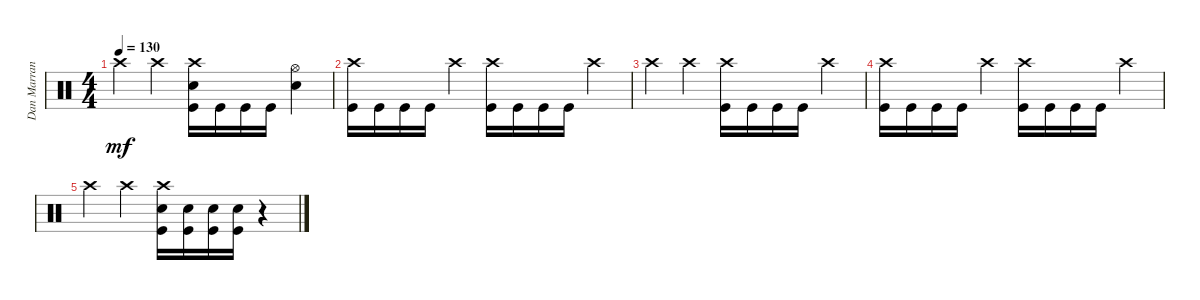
\track ("Dan Marranca" "Dan Marran") {instrument percussion}
\staff {score}
\articulation defaults
\ts (4 4)
\tempo 130
\clef neutral
\ks c "Crash high (hit)".4{dy mf} "Crash high (hit)".4
("Crash high (hit)" "Electric Snare (hit)" "Kick (hit)").16 "Kick (hit)".16 "Kick (hit)".16 "Kick (hit)".16 ("Hi-Hat (open)" "Electric Snare (hit)").4 |
("Crash high (hit)" "Kick (hit)").16 "Kick (hit)".16 "Kick (hit)".16 "Kick (hit)".16 "Crash high (hit)".4 ("Crash high (hit)" "Kick (hit)").16 "Kick (hit)".16 "Kick (hit)".16 "Kick (hit)".16 "Crash high (hit)".4 |
"Crash high (hit)".4 "Crash high (hit)".4 ("Crash high (hit)" "Kick (hit)").16 "Kick (hit)".16 "Kick (hit)".16 "Kick (hit)".16 "Crash high (hit)".4 |
("Crash high (hit)" "Kick (hit)").16 "Kick (hit)".16 "Kick (hit)".16 "Kick (hit)".16 "Crash high (hit)".4 ("Crash high (hit)" "Kick (hit)").16 "Kick (hit)".16 "Kick (hit)".16 "Kick (hit)".16 "Crash high (hit)".4 |
"Crash high (hit)".4 "Crash high (hit)".4 ("Crash high (hit)" "Electric Snare (hit)" "Kick (hit)").16 ("Electric Snare (hit)" "Kick (hit)").16 ("Electric Snare (hit)" "Kick (hit)").16 ("Electric Snare (hit)" "Kick (hit)").16 r.4
